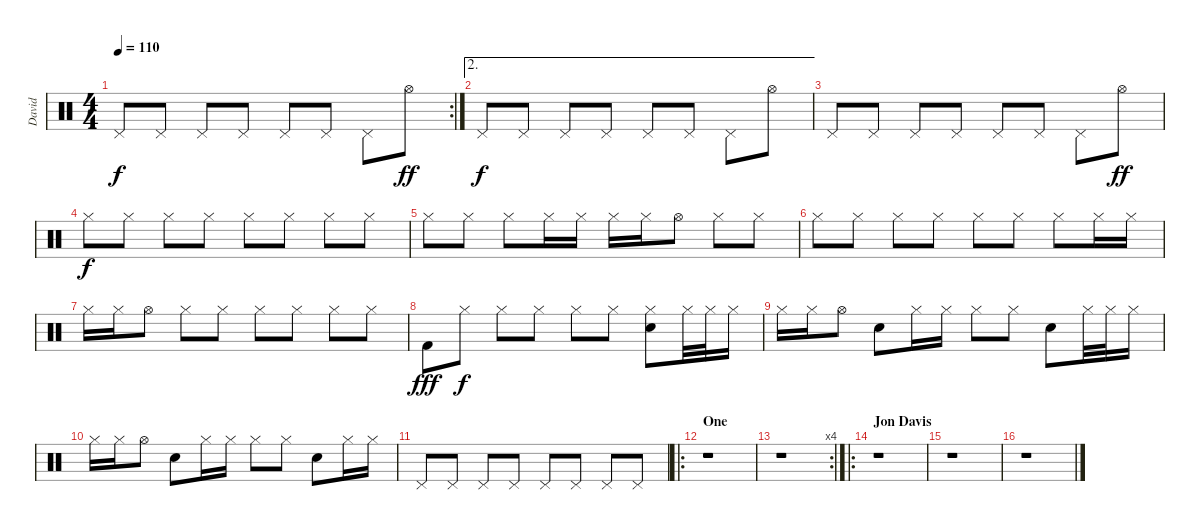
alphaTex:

\track ("David" "David") {instrument percussion}
\staff {score}
\articulation defaults
\rc 2
\ts (4 4)
\tempo 110
\clef neutral
\ks c "Pedal Hi-Hat (hit)".8{dy f} "Pedal Hi-Hat (hit)".8 "Pedal Hi-Hat (hit)".8 "Pedal Hi-Hat (hit)".8 "Pedal Hi-Hat (hit)".8 "Pedal Hi-Hat (hit)".8 "Pedal Hi-Hat (hit)".8 "Hi-Hat (open)".8{dy ff}
|
\ae 2 "Pedal Hi-Hat (hit)".8{dy f} "Pedal Hi-Hat (hit)".8 "Pedal Hi-Hat (hit)".8 "Pedal Hi-Hat (hit)".8 "Pedal Hi-Hat (hit)".8 "Pedal Hi-Hat (hit)".8 "Pedal Hi-Hat (hit)".8 "Hi-Hat (open)".8
|
"Pedal Hi-Hat (hit)".8 "Pedal Hi-Hat (hit)".8 "Pedal Hi-Hat (hit)".8 "Pedal Hi-Hat (hit)".8 "Pedal Hi-Hat (hit)".8 "Pedal Hi-Hat (hit)".8 "Pedal Hi-Hat (hit)".8 "Hi-Hat (open)".8{dy ff} |
"Hi-Hat (closed)".8{dy f} "Hi-Hat (closed)".8 "Hi-Hat (closed)".8 "Hi-Hat (closed)".8 "Hi-Hat (closed)".8 "Hi-Hat (closed)".8 "Hi-Hat (closed)".8 "Hi-Hat (closed)".8 |
"Hi-Hat (closed)".8 "Hi-Hat (closed)".8 "Hi-Hat (closed)".8 "Hi-Hat (closed)".16 "Hi-Hat (closed)".16 "Hi-Hat (closed)".16 "Hi-Hat (closed)".16 "Hi-Hat (open)".8 "Hi-Hat (closed)".8 "Hi-Hat (closed)".8 |
"Hi-Hat (closed)".8 "Hi-Hat (closed)".8 "Hi-Hat (closed)".8 "Hi-Hat (closed)".8 "Hi-Hat (closed)".8 "Hi-Hat (closed)".8 "Hi-Hat (closed)".8 "Hi-Hat (closed)".16 "Hi-Hat (closed)".16 |
"Hi-Hat (closed)".16 "Hi-Hat (closed)".16 "Hi-Hat (open)".8 "Hi-Hat (closed)".8 "Hi-Hat (closed)".8 "Hi-Hat (closed)".8 "Hi-Hat (closed)".8 "Hi-Hat (closed)".8 "Hi-Hat (closed)".8 |
"Kick (hit) 2".8{dy fff} "Hi-Hat (closed)".8{dy f} "Hi-Hat (closed)".8 "Hi-Hat (closed)".8 "Hi-Hat (closed)".8 "Hi-Hat (closed)".8 ("Snare (hit) 2" "Hi-Hat (closed)").8 "Hi-Hat (closed)".32 "Hi-Hat (closed)".32 "Hi-Hat (closed)".16 |
"Hi-Hat (closed)".16 "Hi-Hat (closed)".16 "Hi-Hat (open)".8 "Snare (hit) 2".8 "Hi-Hat (closed)".16 "Hi-Hat (closed)".16 "Hi-Hat (closed)".8 "Hi-Hat (closed)".8 "Snare (hit) 2".8 "Hi-Hat (closed)".32 "Hi-Hat (closed)".32 "Hi-Hat (closed)".16 |
"Hi-Hat (closed)".16 "Hi-Hat (closed)".16 "Hi-Hat (open)".8 "Snare (hit) 2".8 "Hi-Hat (closed)".16 "Hi-Hat (closed)".16 "Hi-Hat (closed)".8 "Hi-Hat (closed)".8 "Snare (hit) 2".8 "Hi-Hat (closed)".16 "Hi-Hat (closed)".16 |
"Pedal Hi-Hat (hit)".8 "Pedal Hi-Hat (hit)".8 "Pedal Hi-Hat (hit)".8 "Pedal Hi-Hat (hit)".8 "Pedal Hi-Hat (hit)".8 "Pedal Hi-Hat (hit)".8 "Pedal Hi-Hat (hit)".8 "Pedal Hi-Hat (hit)".8 |
\ro
\section ("" "One")
r.1 |
\rc 4
r.1 |
\ro
\section ("" "Jon Davis")
r.1 |
r.1 |
r.1
